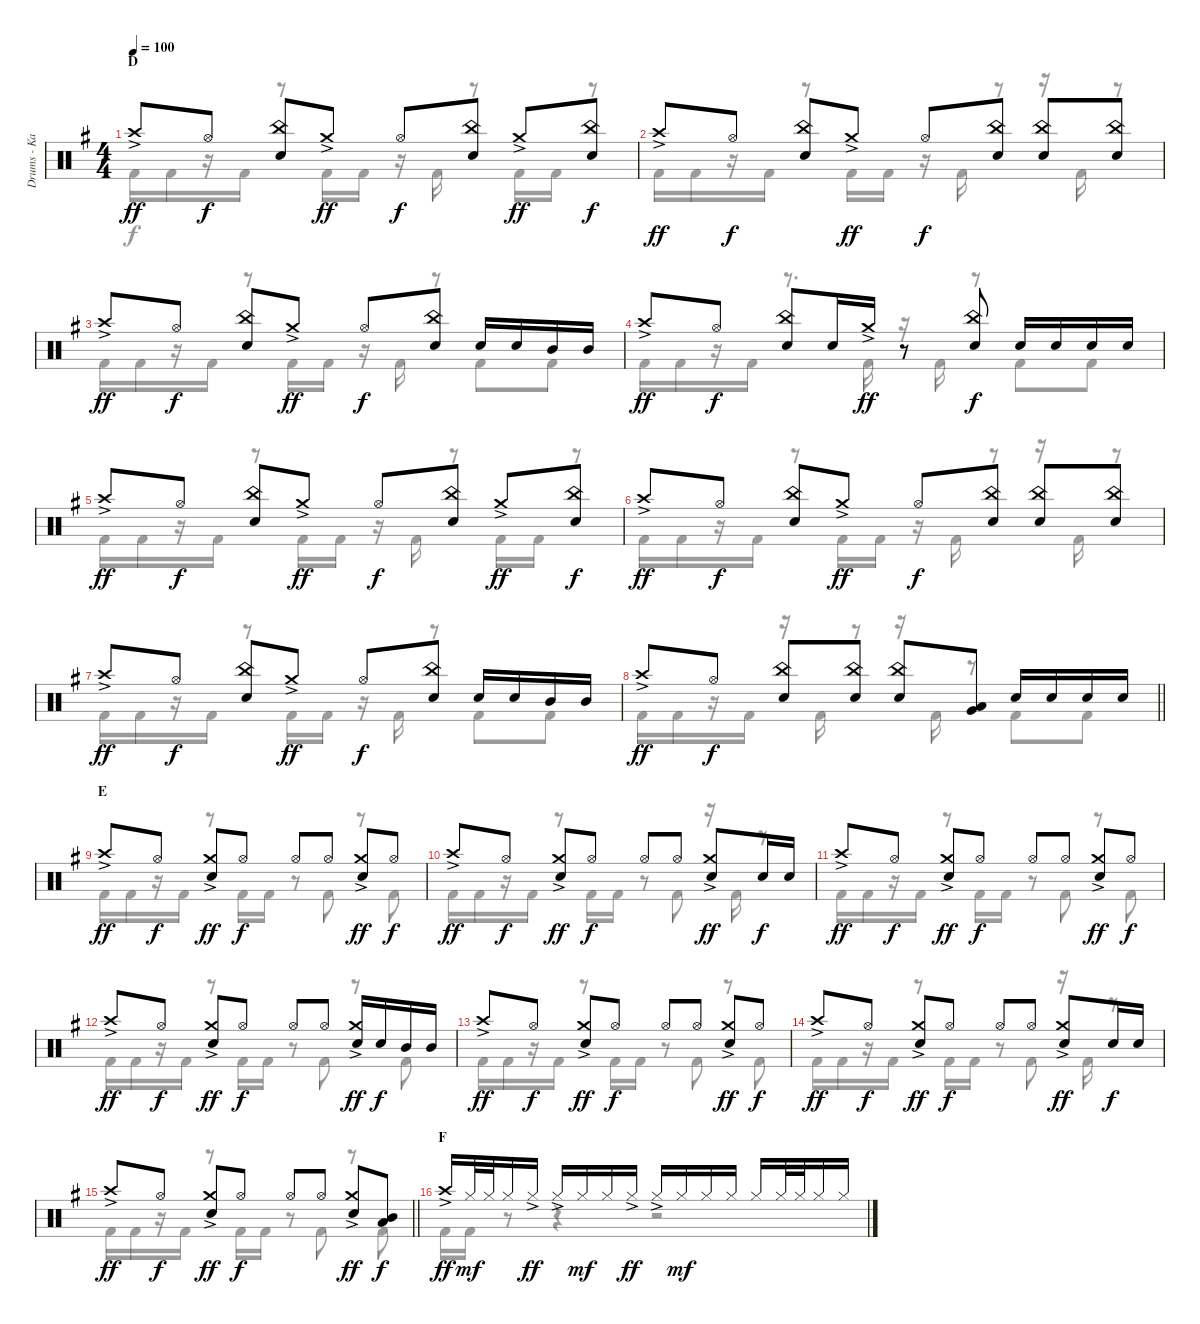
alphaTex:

\track ("Drums - Kai" "Drums - Ka") {instrument percussion}
\staff {score}
\articulation defaults
\voice
\ts (4 4)
\section ("" "D")
\tempo 100
\clef neutral
\ks g "Crash high (hit)"{ac}.8{dy ff} "Hi-Hat (open)".8{dy f}
("China (hit)" "Electric Snare (hit)").8 "Crash medium (hit)"{ac}.8{dy ff} "Hi-Hat (open)".8{dy f} ("China (hit)" "Electric Snare (hit)").8 "Crash medium (hit)"{ac}.8{dy ff} ("China (hit)" "Electric Snare (hit)").8{dy f} |
"Crash high (hit)"{ac}.8{dy ff} "Hi-Hat (open)".8{dy f} ("China (hit)" "Electric Snare (hit)").8 "Crash medium (hit)"{ac}.8{dy ff} "Hi-Hat (open)".8{dy f} ("China (hit)" "Electric Snare (hit)").8 ("China (hit)" "Electric Snare (hit)").8 ("China (hit)" "Electric Snare (hit)").8 |
"Crash high (hit)"{ac}.8{dy ff} "Hi-Hat (open)".8{dy f} ("China (hit)" "Electric Snare (hit)").8 "Crash medium (hit)"{ac}.8{dy ff} "Hi-Hat (open)".8{dy f} ("China (hit)" "Electric Snare (hit)").8 "Electric Snare (hit)".16 "Electric Snare (hit)".16 "Mid Tom (hit)".16 "Mid Tom (hit)".16 |
"Crash high (hit)"{ac}.8{dy ff} "Hi-Hat (open)".8{dy f} ("China (hit)" "Electric Snare (hit)").8 "Electric Snare (hit)".16 "Crash medium (hit)"{ac}.16{dy ff} r.8 ("China (hit)" "Electric Snare (hit)").8{dy f} "Electric Snare (hit)".16 "Electric Snare (hit)".16 "Electric Snare (hit)".16 "Electric Snare (hit)".16 |
"Crash high (hit)"{ac}.8{dy ff} "Hi-Hat (open)".8{dy f} ("China (hit)" "Electric Snare (hit)").8 "Crash medium (hit)"{ac}.8{dy ff} "Hi-Hat (open)".8{dy f} ("China (hit)" "Electric Snare (hit)").8 "Crash medium (hit)"{ac}.8{dy ff} ("China (hit)" "Electric Snare (hit)").8{dy f} |
"Crash high (hit)"{ac}.8{dy ff} "Hi-Hat (open)".8{dy f} ("China (hit)" "Electric Snare (hit)").8 "Crash medium (hit)"{ac}.8{dy ff} "Hi-Hat (open)".8{dy f} ("China (hit)" "Electric Snare (hit)").8 ("China (hit)" "Electric Snare (hit)").8 ("China (hit)" "Electric Snare (hit)").8 |
"Crash high (hit)"{ac}.8{dy ff} "Hi-Hat (open)".8{dy f} ("China (hit)" "Electric Snare (hit)").8 "Crash medium (hit)"{ac}.8{dy ff} "Hi-Hat (open)".8{dy f} ("China (hit)" "Electric Snare (hit)").8 "Electric Snare (hit)".16 "Electric Snare (hit)".16 "Mid Tom (hit)".16 "Mid Tom (hit)".16 |
\barLineRight lightlight "Crash high (hit)"{ac}.8{dy ff} "Hi-Hat (open)".8{dy f}
("China (hit)" "Electric Snare (hit)").8 ("China (hit)" "Electric Snare (hit)").8 ("China (hit)" "Electric Snare (hit)").8 ("Low Tom (hit)" "Very Low Tom (hit)").8 "Electric Snare (hit)".16 "Electric Snare (hit)".16 "Electric Snare (hit)".16 "Electric Snare (hit)".16 |
\section ("" "E")
"Crash high (hit)"{ac}.8{dy ff} "Hi-Hat (open)".8{dy f} ("Crash medium (hit)"{ac} "Electric Snare (hit)").8{dy ff} "Hi-Hat (open)".8{dy f} "Hi-Hat (open)".8 "Hi-Hat (open)".8 ("Crash medium (hit)"{ac} "Electric Snare (hit)").8{dy ff} "Hi-Hat (open)".8{dy f} |
"Crash high (hit)"{ac}.8{dy ff} "Hi-Hat (open)".8{dy f} ("Crash medium (hit)"{ac} "Electric Snare (hit)").8{dy ff} "Hi-Hat (open)".8{dy f} "Hi-Hat (open)".8 "Hi-Hat (open)".8 ("Crash medium (hit)"{ac} "Electric Snare (hit)").8{dy ff} "Electric Snare (hit)".16{dy f} "Electric Snare (hit)".16 |
"Crash high (hit)"{ac}.8{dy ff} "Hi-Hat (open)".8{dy f} ("Crash medium (hit)"{ac} "Electric Snare (hit)").8{dy ff} "Hi-Hat (open)".8{dy f} "Hi-Hat (open)".8 "Hi-Hat (open)".8 ("Crash medium (hit)"{ac} "Electric Snare (hit)").8{dy ff} "Hi-Hat (open)".8{dy f} |
"Crash high (hit)"{ac}.8{dy ff} "Hi-Hat (open)".8{dy f} ("Crash medium (hit)"{ac} "Electric Snare (hit)").8{dy ff} "Hi-Hat (open)".8{dy f} "Hi-Hat (open)".8 "Hi-Hat (open)".8 ("Crash medium (hit)"{ac} "Electric Snare (hit)").16{dy ff} "Electric Snare (hit)".16{dy f} "Mid Tom (hit)".16 "Mid Tom (hit)".16 |
"Crash high (hit)"{ac}.8{dy ff} "Hi-Hat (open)".8{dy f} ("Crash medium (hit)"{ac} "Electric Snare (hit)").8{dy ff} "Hi-Hat (open)".8{dy f} "Hi-Hat (open)".8 "Hi-Hat (open)".8 ("Crash medium (hit)"{ac} "Electric Snare (hit)").8{dy ff} "Hi-Hat (open)".8{dy f} |
"Crash high (hit)"{ac}.8{dy ff} "Hi-Hat (open)".8{dy f} ("Crash medium (hit)"{ac} "Electric Snare (hit)").8{dy ff} "Hi-Hat (open)".8{dy f} "Hi-Hat (open)".8 "Hi-Hat (open)".8 ("Crash medium (hit)"{ac} "Electric Snare (hit)").8{dy ff} "Electric Snare (hit)".16{dy f} "Electric Snare (hit)".16 |
\barLineRight lightlight "Crash high (hit)"{ac}.8{dy ff} "Hi-Hat (open)".8{dy f}
("Crash medium (hit)"{ac} "Electric Snare (hit)").8{dy ff} "Hi-Hat (open)".8{dy f} "Hi-Hat (open)".8 "Hi-Hat (open)".8 ("Crash medium (hit)"{ac} "Electric Snare (hit)").8{dy ff} ("Mid Tom (hit)" "Low Tom (hit)").8{dy f} |
\section ("" "F")
"Crash high (hit)"{ac}.16{dy ff} "Hi-Hat (closed)".32{dy mf} "Hi-Hat (closed)".32 "Hi-Hat (closed)".16 "Hi-Hat (closed)"{ac}.16{dy ff} "Hi-Hat (closed)"{ac}.16 "Hi-Hat (closed)".16{dy mf} "Hi-Hat (closed)".16 "Hi-Hat (closed)"{ac}.16{dy ff} "Hi-Hat (closed)"{ac}.16 "Hi-Hat (closed)".16{dy mf} "Hi-Hat (closed)".16 "Hi-Hat (closed)".16 "Hi-Hat (closed)".16 "Hi-Hat (closed)".32 "Hi-Hat (closed)".32 "Hi-Hat (closed)".16 "Hi-Hat (closed)".16
\voice
\clef neutral
\ottava regular
\simile none
\ks g "Kick (hit) 2".16{dy f} "Kick (hit) 2".16
r.16 "Kick (hit) 2".16 r.8 "Kick (hit) 2".16 "Kick (hit) 2".16 r.16 "Kick (hit) 2".16 r.8 "Kick (hit) 2".16 "Kick (hit) 2".16 r.8 |
"Kick (hit) 2".16 "Kick (hit) 2".16 r.16 "Kick (hit) 2".16 r.8 "Kick (hit) 2".16 "Kick (hit) 2".16 r.16 "Kick (hit) 2".16 r.8 r.16 "Kick (hit) 2".16 r.8 |
"Kick (hit) 2".16 "Kick (hit) 2".16 r.16 "Kick (hit) 2".16 r.8 "Kick (hit) 2".16 "Kick (hit) 2".16 r.16 "Kick (hit) 2".16 r.8 "Kick (hit) 2".8 "Kick (hit) 2".8 |
"Kick (hit) 2".16 "Kick (hit) 2".16 r.16 "Kick (hit) 2".16 r.8{d} "Kick (hit) 2".16 r.16 "Kick (hit) 2".16 r.8 "Kick (hit) 2".8 "Kick (hit) 2".8 |
"Kick (hit) 2".16 "Kick (hit) 2".16 r.16 "Kick (hit) 2".16 r.8 "Kick (hit) 2".16 "Kick (hit) 2".16 r.16 "Kick (hit) 2".16 r.8 "Kick (hit) 2".16 "Kick (hit) 2".16 r.8 |
"Kick (hit) 2".16 "Kick (hit) 2".16 r.16 "Kick (hit) 2".16 r.8 "Kick (hit) 2".16 "Kick (hit) 2".16 r.16 "Kick (hit) 2".16 r.8 r.16 "Kick (hit) 2".16 r.8 |
"Kick (hit) 2".16 "Kick (hit) 2".16 r.16 "Kick (hit) 2".16 r.8 "Kick (hit) 2".16 "Kick (hit) 2".16 r.16 "Kick (hit) 2".16 r.8 "Kick (hit) 2".8 "Kick (hit) 2".8 |
\barLineRight lightlight "Kick (hit) 2".16 "Kick (hit) 2".16
r.16 "Kick (hit) 2".16 r.16 "Kick (hit) 2".16 r.8 r.16 "Kick (hit) 2".16 r.8 "Kick (hit) 2".8 "Kick (hit) 2".8 |
"Kick (hit) 2".16 "Kick (hit) 2".16 r.16 "Kick (hit) 2".16 r.8 "Kick (hit) 2".16 "Kick (hit) 2".16 r.8 "Kick (hit) 2".8 r.8 "Kick (hit) 2".8 |
"Kick (hit) 2".16 "Kick (hit) 2".16 r.16 "Kick (hit) 2".16 r.8 "Kick (hit) 2".16 "Kick (hit) 2".16 r.8 "Kick (hit) 2".8 r.16 "Kick (hit) 2".16 r.8 |
"Kick (hit) 2".16 "Kick (hit) 2".16 r.16 "Kick (hit) 2".16 r.8 "Kick (hit) 2".16 "Kick (hit) 2".16 r.8 "Kick (hit) 2".8 r.8 "Kick (hit) 2".8 |
"Kick (hit) 2".16 "Kick (hit) 2".16 r.16 "Kick (hit) 2".16 r.8 "Kick (hit) 2".16 "Kick (hit) 2".16 r.8 "Kick (hit) 2".8 r.8 "Kick (hit) 2".8 |
"Kick (hit) 2".16 "Kick (hit) 2".16 r.16 "Kick (hit) 2".16 r.8 "Kick (hit) 2".16 "Kick (hit) 2".16 r.8 "Kick (hit) 2".8 r.8 "Kick (hit) 2".8 |
"Kick (hit) 2".16 "Kick (hit) 2".16 r.16 "Kick (hit) 2".16 r.8 "Kick (hit) 2".16 "Kick (hit) 2".16 r.8 "Kick (hit) 2".8 r.16 "Kick (hit) 2".16 r.8 |
\barLineRight lightlight "Kick (hit) 2".16 "Kick (hit) 2".16
r.16 "Kick (hit) 2".16 r.8 "Kick (hit) 2".16 "Kick (hit) 2".16 r.8 "Kick (hit) 2".8 r.8 "Kick (hit) 2".8 |
"Kick (hit) 2".16 "Kick (hit) 2".16 r.8 r.4 r.2
